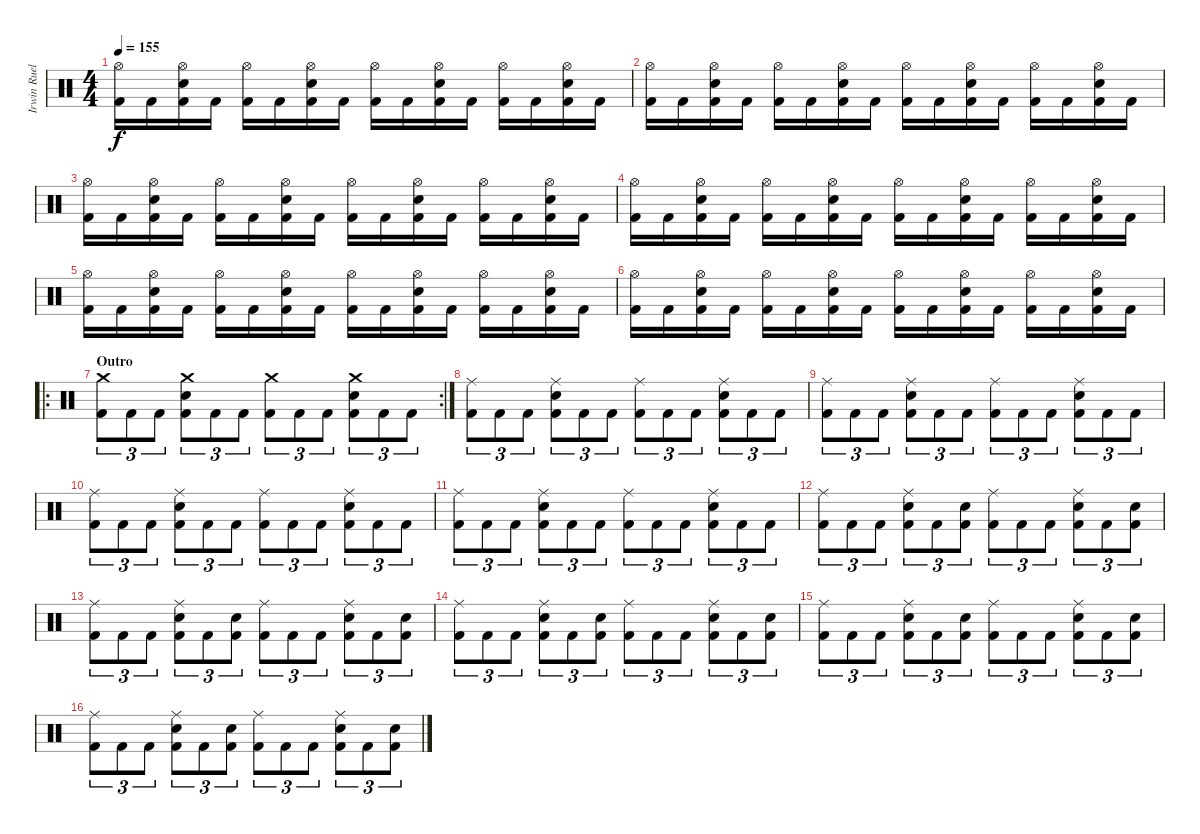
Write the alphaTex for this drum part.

\track ("Irwin Ruelas" "Irwin Ruel") {instrument percussion}
\staff {score}
\articulation defaults
\ts (4 4)
\tempo 155
\clef neutral
\ks c
("Hi-Hat (open)" "Kick (hit) 2").16{dy f} "Kick (hit) 2".16 ("Hi-Hat (open)" "Electric Snare (hit)" "Kick (hit) 2").16 "Kick (hit) 2".16 ("Hi-Hat (open)" "Kick (hit) 2").16 "Kick (hit) 2".16 ("Hi-Hat (open)" "Electric Snare (hit)" "Kick (hit) 2").16 "Kick (hit) 2".16 ("Hi-Hat (open)" "Kick (hit) 2").16 "Kick (hit) 2".16 ("Hi-Hat (open)" "Electric Snare (hit)" "Kick (hit) 2").16 "Kick (hit) 2".16 ("Hi-Hat (open)" "Kick (hit) 2").16 "Kick (hit) 2".16 ("Hi-Hat (open)" "Electric Snare (hit)" "Kick (hit) 2").16 "Kick (hit) 2".16 |
("Hi-Hat (open)" "Kick (hit) 2").16 "Kick (hit) 2".16 ("Hi-Hat (open)" "Electric Snare (hit)" "Kick (hit) 2").16 "Kick (hit) 2".16 ("Hi-Hat (open)" "Kick (hit) 2").16 "Kick (hit) 2".16 ("Hi-Hat (open)" "Electric Snare (hit)" "Kick (hit) 2").16 "Kick (hit) 2".16 ("Hi-Hat (open)" "Kick (hit) 2").16 "Kick (hit) 2".16 ("Hi-Hat (open)" "Electric Snare (hit)" "Kick (hit) 2").16 "Kick (hit) 2".16 ("Hi-Hat (open)" "Kick (hit) 2").16 "Kick (hit) 2".16 ("Hi-Hat (open)" "Electric Snare (hit)" "Kick (hit) 2").16 "Kick (hit) 2".16 |
("Hi-Hat (open)" "Kick (hit) 2").16 "Kick (hit) 2".16 ("Hi-Hat (open)" "Electric Snare (hit)" "Kick (hit) 2").16 "Kick (hit) 2".16 ("Hi-Hat (open)" "Kick (hit) 2").16 "Kick (hit) 2".16 ("Hi-Hat (open)" "Electric Snare (hit)" "Kick (hit) 2").16 "Kick (hit) 2".16 ("Hi-Hat (open)" "Kick (hit) 2").16 "Kick (hit) 2".16 ("Hi-Hat (open)" "Electric Snare (hit)" "Kick (hit) 2").16 "Kick (hit) 2".16 ("Hi-Hat (open)" "Kick (hit) 2").16 "Kick (hit) 2".16 ("Hi-Hat (open)" "Electric Snare (hit)" "Kick (hit) 2").16 "Kick (hit) 2".16 |
("Hi-Hat (open)" "Kick (hit) 2").16 "Kick (hit) 2".16 ("Hi-Hat (open)" "Electric Snare (hit)" "Kick (hit) 2").16 "Kick (hit) 2".16 ("Hi-Hat (open)" "Kick (hit) 2").16 "Kick (hit) 2".16 ("Hi-Hat (open)" "Electric Snare (hit)" "Kick (hit) 2").16 "Kick (hit) 2".16 ("Hi-Hat (open)" "Kick (hit) 2").16 "Kick (hit) 2".16 ("Hi-Hat (open)" "Electric Snare (hit)" "Kick (hit) 2").16 "Kick (hit) 2".16 ("Hi-Hat (open)" "Kick (hit) 2").16 "Kick (hit) 2".16 ("Hi-Hat (open)" "Electric Snare (hit)" "Kick (hit) 2").16 "Kick (hit) 2".16 |
("Hi-Hat (open)" "Kick (hit) 2").16 "Kick (hit) 2".16 ("Hi-Hat (open)" "Electric Snare (hit)" "Kick (hit) 2").16 "Kick (hit) 2".16 ("Hi-Hat (open)" "Kick (hit) 2").16 "Kick (hit) 2".16 ("Hi-Hat (open)" "Electric Snare (hit)" "Kick (hit) 2").16 "Kick (hit) 2".16 ("Hi-Hat (open)" "Kick (hit) 2").16 "Kick (hit) 2".16 ("Hi-Hat (open)" "Electric Snare (hit)" "Kick (hit) 2").16 "Kick (hit) 2".16 ("Hi-Hat (open)" "Kick (hit) 2").16 "Kick (hit) 2".16 ("Hi-Hat (open)" "Electric Snare (hit)" "Kick (hit) 2").16 "Kick (hit) 2".16 |
("Hi-Hat (open)" "Kick (hit) 2").16 "Kick (hit) 2".16 ("Hi-Hat (open)" "Electric Snare (hit)" "Kick (hit) 2").16 "Kick (hit) 2".16 ("Hi-Hat (open)" "Kick (hit) 2").16 "Kick (hit) 2".16 ("Hi-Hat (open)" "Electric Snare (hit)" "Kick (hit) 2").16 "Kick (hit) 2".16 ("Hi-Hat (open)" "Kick (hit) 2").16 "Kick (hit) 2".16 ("Hi-Hat (open)" "Electric Snare (hit)" "Kick (hit) 2").16 "Kick (hit) 2".16 ("Hi-Hat (open)" "Kick (hit) 2").16 "Kick (hit) 2".16 ("Hi-Hat (open)" "Electric Snare (hit)" "Kick (hit) 2").16 "Kick (hit) 2".16 |
\ro
\rc 2
\section ("" "Outro")
("Crash medium (hit)" "Kick (hit) 2").8{tu (3 2)} "Kick (hit) 2".8{tu (3 2)} "Kick (hit) 2".8{tu (3 2)} ("Crash medium (hit)" "Electric Snare (hit)" "Kick (hit) 2").8{tu (3 2)} "Kick (hit) 2".8{tu (3 2)} "Kick (hit) 2".8{tu (3 2)} ("Crash medium (hit)" "Kick (hit) 2").8{tu (3 2)} "Kick (hit) 2".8{tu (3 2)} "Kick (hit) 2".8{tu (3 2)} ("Crash medium (hit)" "Electric Snare (hit)" "Kick (hit) 2").8{tu (3 2)} "Kick (hit) 2".8{tu (3 2)} "Kick (hit) 2".8{tu (3 2)} |
("Ride (middle)" "Kick (hit) 2").8{tu (3 2)} "Kick (hit) 2".8{tu (3 2)} "Kick (hit) 2".8{tu (3 2)} ("Ride (middle)" "Electric Snare (hit)" "Kick (hit) 2").8{tu (3 2)} "Kick (hit) 2".8{tu (3 2)} "Kick (hit) 2".8{tu (3 2)} ("Ride (middle)" "Kick (hit) 2").8{tu (3 2)} "Kick (hit) 2".8{tu (3 2)} "Kick (hit) 2".8{tu (3 2)} ("Ride (middle)" "Electric Snare (hit)" "Kick (hit) 2").8{tu (3 2)} "Kick (hit) 2".8{tu (3 2)} "Kick (hit) 2".8{tu (3 2)} |
("Ride (middle)" "Kick (hit) 2").8{tu (3 2)} "Kick (hit) 2".8{tu (3 2)} "Kick (hit) 2".8{tu (3 2)} ("Ride (middle)" "Electric Snare (hit)" "Kick (hit) 2").8{tu (3 2)} "Kick (hit) 2".8{tu (3 2)} "Kick (hit) 2".8{tu (3 2)} ("Ride (middle)" "Kick (hit) 2").8{tu (3 2)} "Kick (hit) 2".8{tu (3 2)} "Kick (hit) 2".8{tu (3 2)} ("Ride (middle)" "Electric Snare (hit)" "Kick (hit) 2").8{tu (3 2)} "Kick (hit) 2".8{tu (3 2)} "Kick (hit) 2".8{tu (3 2)} |
("Ride (middle)" "Kick (hit) 2").8{tu (3 2)} "Kick (hit) 2".8{tu (3 2)} "Kick (hit) 2".8{tu (3 2)} ("Ride (middle)" "Electric Snare (hit)" "Kick (hit) 2").8{tu (3 2)} "Kick (hit) 2".8{tu (3 2)} "Kick (hit) 2".8{tu (3 2)} ("Ride (middle)" "Kick (hit) 2").8{tu (3 2)} "Kick (hit) 2".8{tu (3 2)} "Kick (hit) 2".8{tu (3 2)} ("Ride (middle)" "Electric Snare (hit)" "Kick (hit) 2").8{tu (3 2)} "Kick (hit) 2".8{tu (3 2)} "Kick (hit) 2".8{tu (3 2)} |
("Ride (middle)" "Kick (hit) 2").8{tu (3 2)} "Kick (hit) 2".8{tu (3 2)} "Kick (hit) 2".8{tu (3 2)} ("Ride (middle)" "Electric Snare (hit)" "Kick (hit) 2").8{tu (3 2)} "Kick (hit) 2".8{tu (3 2)} "Kick (hit) 2".8{tu (3 2)} ("Ride (middle)" "Kick (hit) 2").8{tu (3 2)} "Kick (hit) 2".8{tu (3 2)} "Kick (hit) 2".8{tu (3 2)} ("Ride (middle)" "Electric Snare (hit)" "Kick (hit) 2").8{tu (3 2)} "Kick (hit) 2".8{tu (3 2)} "Kick (hit) 2".8{tu (3 2)} |
("Ride (middle)" "Kick (hit) 2").8{tu (3 2)} "Kick (hit) 2".8{tu (3 2)} "Kick (hit) 2".8{tu (3 2)} ("Ride (middle)" "Electric Snare (hit)" "Kick (hit) 2").8{tu (3 2)} "Kick (hit) 2".8{tu (3 2)} ("Electric Snare (hit)" "Kick (hit) 2").8{tu (3 2)} ("Ride (middle)" "Kick (hit) 2").8{tu (3 2)} "Kick (hit) 2".8{tu (3 2)} "Kick (hit) 2".8{tu (3 2)} ("Ride (middle)" "Electric Snare (hit)" "Kick (hit) 2").8{tu (3 2)} "Kick (hit) 2".8{tu (3 2)} ("Electric Snare (hit)" "Kick (hit) 2").8{tu (3 2)} |
("Ride (middle)" "Kick (hit) 2").8{tu (3 2)} "Kick (hit) 2".8{tu (3 2)} "Kick (hit) 2".8{tu (3 2)} ("Ride (middle)" "Electric Snare (hit)" "Kick (hit) 2").8{tu (3 2)} "Kick (hit) 2".8{tu (3 2)} ("Electric Snare (hit)" "Kick (hit) 2").8{tu (3 2)} ("Ride (middle)" "Kick (hit) 2").8{tu (3 2)} "Kick (hit) 2".8{tu (3 2)} "Kick (hit) 2".8{tu (3 2)} ("Ride (middle)" "Electric Snare (hit)" "Kick (hit) 2").8{tu (3 2)} "Kick (hit) 2".8{tu (3 2)} ("Electric Snare (hit)" "Kick (hit) 2").8{tu (3 2)} |
("Ride (middle)" "Kick (hit) 2").8{tu (3 2)} "Kick (hit) 2".8{tu (3 2)} "Kick (hit) 2".8{tu (3 2)} ("Ride (middle)" "Electric Snare (hit)" "Kick (hit) 2").8{tu (3 2)} "Kick (hit) 2".8{tu (3 2)} ("Electric Snare (hit)" "Kick (hit) 2").8{tu (3 2)} ("Ride (middle)" "Kick (hit) 2").8{tu (3 2)} "Kick (hit) 2".8{tu (3 2)} "Kick (hit) 2".8{tu (3 2)} ("Ride (middle)" "Electric Snare (hit)" "Kick (hit) 2").8{tu (3 2)} "Kick (hit) 2".8{tu (3 2)} ("Electric Snare (hit)" "Kick (hit) 2").8{tu (3 2)} |
("Ride (middle)" "Kick (hit) 2").8{tu (3 2)} "Kick (hit) 2".8{tu (3 2)} "Kick (hit) 2".8{tu (3 2)} ("Ride (middle)" "Electric Snare (hit)" "Kick (hit) 2").8{tu (3 2)} "Kick (hit) 2".8{tu (3 2)} ("Electric Snare (hit)" "Kick (hit) 2").8{tu (3 2)} ("Ride (middle)" "Kick (hit) 2").8{tu (3 2)} "Kick (hit) 2".8{tu (3 2)} "Kick (hit) 2".8{tu (3 2)} ("Ride (middle)" "Electric Snare (hit)" "Kick (hit) 2").8{tu (3 2)} "Kick (hit) 2".8{tu (3 2)} ("Electric Snare (hit)" "Kick (hit) 2").8{tu (3 2)} |
("Ride (middle)" "Kick (hit) 2").8{tu (3 2)} "Kick (hit) 2".8{tu (3 2)} "Kick (hit) 2".8{tu (3 2)} ("Ride (middle)" "Electric Snare (hit)" "Kick (hit) 2").8{tu (3 2)} "Kick (hit) 2".8{tu (3 2)} ("Electric Snare (hit)" "Kick (hit) 2").8{tu (3 2)} ("Ride (middle)" "Kick (hit) 2").8{tu (3 2)} "Kick (hit) 2".8{tu (3 2)} "Kick (hit) 2".8{tu (3 2)} ("Ride (middle)" "Electric Snare (hit)" "Kick (hit) 2").8{tu (3 2)} "Kick (hit) 2".8{tu (3 2)} ("Electric Snare (hit)" "Kick (hit) 2").8{tu (3 2)}
